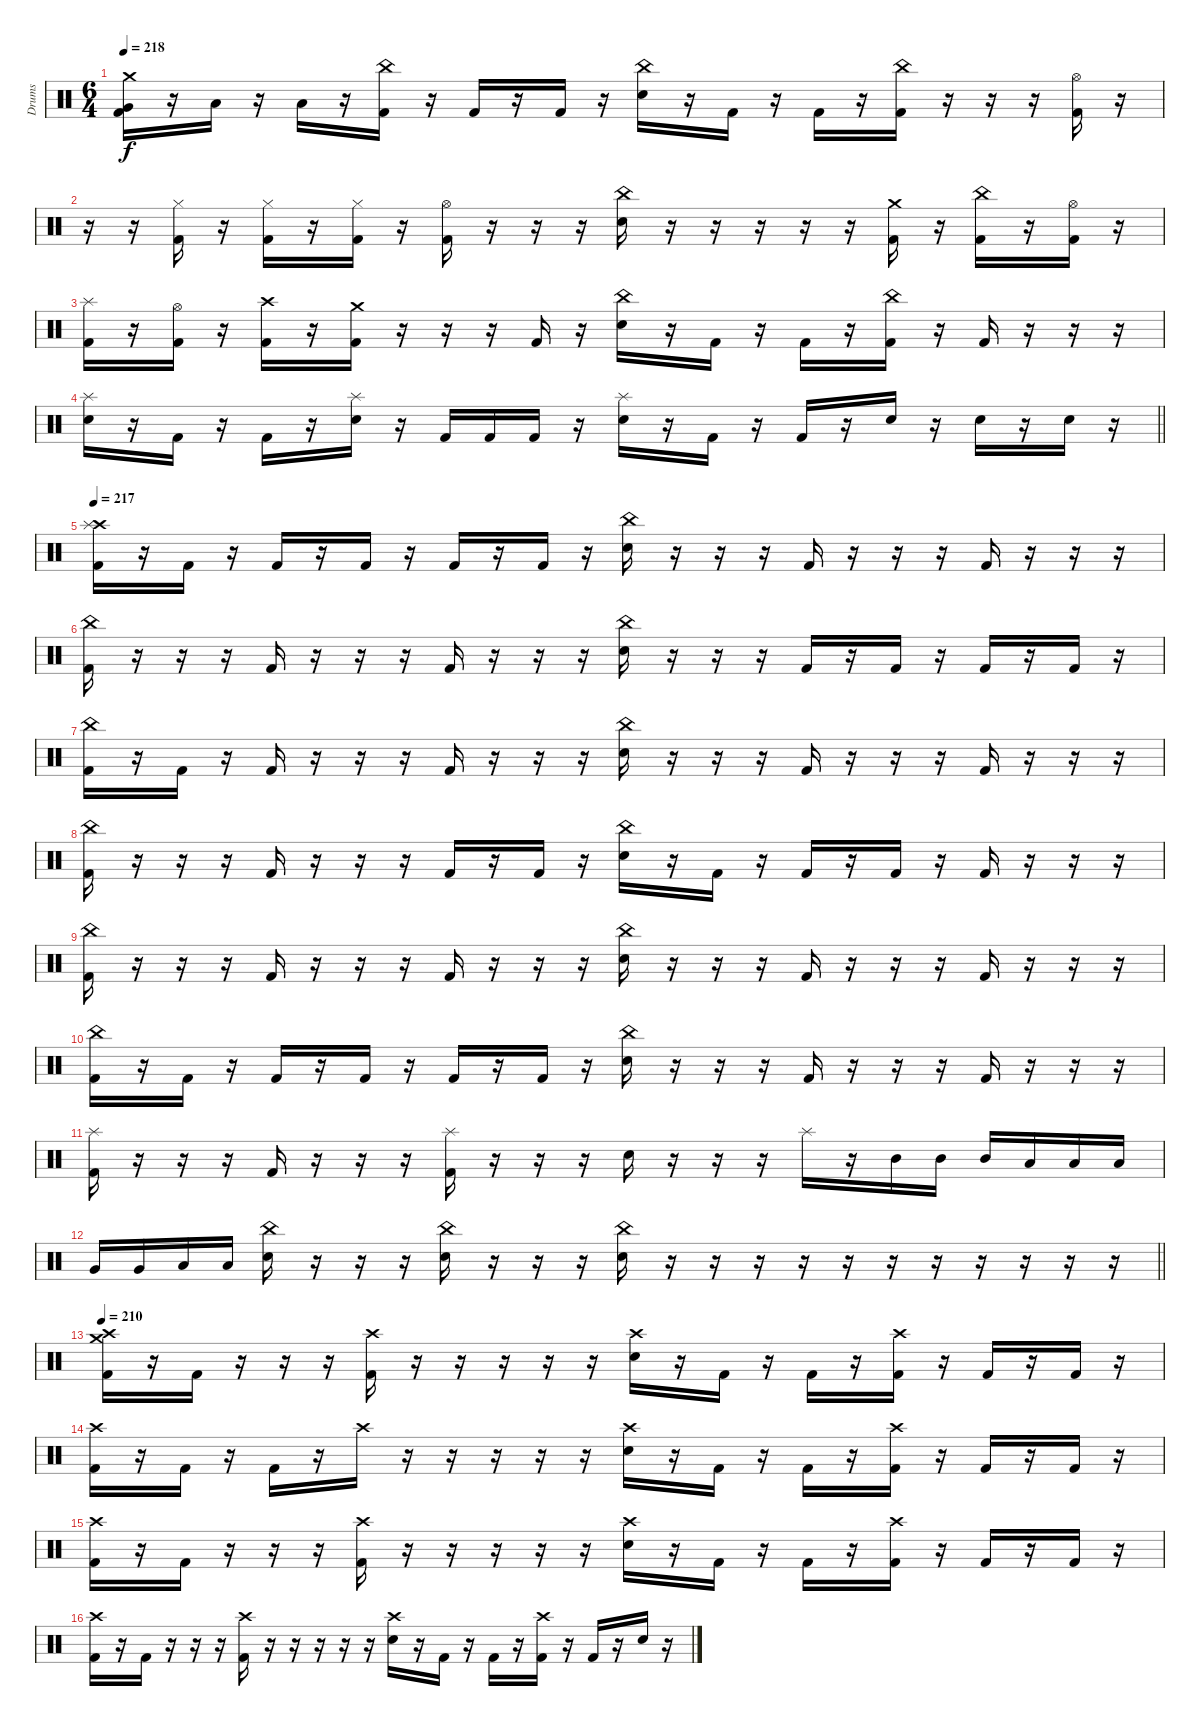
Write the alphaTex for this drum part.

\track ("Drums" "Drums") {instrument percussion}
\staff {score}
\articulation defaults
\ts (6 4)
\tempo 218
\clef neutral
\ks c
("Crash medium (hit)" "Very Low Tom (hit)" "Kick (hit) 2").16{dy f} r.16 "Low Tom (hit)".16 r.16 "Low Floor Tom (hit)".16 r.16 ("China (hit)" "Kick (hit) 2").16 r.16 "Kick (hit) 2".16 r.16 "Kick (hit) 2".16 r.16 ("China (hit)" "Electric Snare (hit)").16 r.16 "Kick (hit) 2".16 r.16 "Kick (hit) 2".16 r.16 ("China (hit)" "Kick (hit) 2").16 r.16 r.16 r.16 ("Hi-Hat (open)" "Kick (hit) 2").16 r.16 |
r.16 r.16 ("Hi-Hat (closed)" "Kick (hit) 2").16 r.16 ("Hi-Hat (closed)" "Kick (hit) 2").16 r.16 ("Hi-Hat (closed)" "Kick (hit) 2").16 r.16 ("Hi-Hat (open)" "Kick (hit) 2").16 r.16 r.16 r.16 ("China (hit)" "Electric Snare (hit)").16 r.16 r.16 r.16 r.16 r.16 ("Crash medium (hit)" "Kick (hit) 2").16 r.16 ("China (hit)" "Kick (hit) 2").16 r.16 ("Hi-Hat (open)" "Kick (hit) 2").16 r.16 |
("Splash (hit)" "Kick (hit) 2").16 r.16 ("Hi-Hat (open)" "Kick (hit) 2").16 r.16 ("Crash high (hit)" "Kick (hit) 2").16 r.16 ("Crash medium (hit)" "Kick (hit) 2").16 r.16 r.16 r.16 "Kick (hit) 2".16 r.16 ("China (hit)" "Electric Snare (hit)").16 r.16 "Kick (hit) 2".16 r.16 "Kick (hit) 2".16 r.16 ("China (hit)" "Kick (hit) 2").16 r.16 "Kick (hit) 2".16 r.16 r.16 r.16 |
\barLineRight lightlight
("Splash (hit)" "Electric Snare (hit)").16 r.16 "Kick (hit) 2".16 r.16 "Kick (hit) 2".16 r.16 ("Splash (hit)" "Electric Snare (hit)").16 r.16 "Kick (hit) 2".16 "Kick (hit) 2".16 "Kick (hit) 2".16 r.16 ("Splash (hit)" "Electric Snare (hit)").16 r.16 "Kick (hit) 2".16 r.16 "Kick (hit) 2".16 r.16 "Electric Snare (hit)".16 r.16 "Electric Snare (hit)".16 r.16 "Electric Snare (hit)".16 r.16 |
\section ("" "")
\tempo 217
("Crash high (hit)" "Splash (hit)" "Kick (hit) 2").16 r.16 "Kick (hit) 2".16 r.16 "Kick (hit) 2".16 r.16 "Kick (hit) 2".16 r.16 "Kick (hit) 2".16 r.16 "Kick (hit) 2".16 r.16 ("China (hit)" "Electric Snare (hit)").16 r.16 r.16 r.16 "Kick (hit) 2".16 r.16 r.16 r.16 "Kick (hit) 2".16 r.16 r.16 r.16 |
("China (hit)" "Kick (hit) 2").16 r.16 r.16 r.16 "Kick (hit) 2".16 r.16 r.16 r.16 "Kick (hit) 2".16 r.16 r.16 r.16 ("China (hit)" "Electric Snare (hit)").16 r.16 r.16 r.16 "Kick (hit) 2".16 r.16 "Kick (hit) 2".16 r.16 "Kick (hit) 2".16 r.16 "Kick (hit) 2".16 r.16 |
("China (hit)" "Kick (hit) 2").16 r.16 "Kick (hit) 2".16 r.16 "Kick (hit) 2".16 r.16 r.16 r.16 "Kick (hit) 2".16 r.16 r.16 r.16 ("China (hit)" "Electric Snare (hit)").16 r.16 r.16 r.16 "Kick (hit) 2".16 r.16 r.16 r.16 "Kick (hit) 2".16 r.16 r.16 r.16 |
("China (hit)" "Kick (hit) 2").16 r.16 r.16 r.16 "Kick (hit) 2".16 r.16 r.16 r.16 "Kick (hit) 2".16 r.16 "Kick (hit) 2".16 r.16 ("China (hit)" "Electric Snare (hit)").16 r.16 "Kick (hit) 2".16 r.16 "Kick (hit) 2".16 r.16 "Kick (hit) 2".16 r.16 "Kick (hit) 2".16 r.16 r.16 r.16 |
("China (hit)" "Kick (hit) 2").16 r.16 r.16 r.16 "Kick (hit) 2".16 r.16 r.16 r.16 "Kick (hit) 2".16 r.16 r.16 r.16 ("China (hit)" "Electric Snare (hit)").16 r.16 r.16 r.16 "Kick (hit) 2".16 r.16 r.16 r.16 "Kick (hit) 2".16 r.16 r.16 r.16 |
("China (hit)" "Kick (hit) 2").16 r.16 "Kick (hit) 2".16 r.16 "Kick (hit) 2".16 r.16 "Kick (hit) 2".16 r.16 "Kick (hit) 2".16 r.16 "Kick (hit) 2".16 r.16 ("China (hit)" "Electric Snare (hit)").16 r.16 r.16 r.16 "Kick (hit) 2".16 r.16 r.16 r.16 "Kick (hit) 2".16 r.16 r.16 r.16 |
("Splash (hit)" "Kick (hit) 2").16 r.16 r.16 r.16 "Kick (hit) 2".16 r.16 r.16 r.16 ("Splash (hit)" "Kick (hit) 2").16 r.16 r.16 r.16 "Electric Snare (hit)".16 r.16 r.16 r.16 "Splash (hit)".16 r.16 "Mid Tom (hit)".16 "Mid Tom (hit)".16 "Mid Tom (hit)".16 "Low Tom (hit)".16 "Low Tom (hit)".16 "Low Tom (hit)".16 |
\barLineRight lightlight "Very Low Tom (hit)".16 "Very Low Tom (hit)".16 "Low Floor Tom (hit)".16 "Low Floor Tom (hit)".16
("China (hit)" "Electric Snare (hit)").16 r.16 r.16 r.16 ("China (hit)" "Electric Snare (hit)").16 r.16 r.16 r.16 ("China (hit)" "Electric Snare (hit)").16 r.16 r.16{volume 0} r.16 r.16 r.16 r.16 r.16 r.16 r.16 r.16 r.16 |
\section ("" "")
\tempo 210
("Crash medium (hit)" "Crash high (hit)" "Kick (hit) 2").16{volume 13} r.16 "Kick (hit) 2".16 r.16 r.16 r.16 ("Crash high (hit)" "Kick (hit) 2").16 r.16 r.16 r.16 r.16 r.16 ("Crash high (hit)" "Electric Snare (hit)").16 r.16 "Kick (hit) 2".16 r.16 "Kick (hit) 2".16 r.16 ("Crash high (hit)" "Kick (hit) 2").16 r.16 "Kick (hit) 2".16 r.16 "Kick (hit) 2".16 r.16 |
("Crash high (hit)" "Kick (hit) 2").16 r.16 "Kick (hit) 2".16 r.16 "Kick (hit) 2".16 r.16 "Crash high (hit)".16 r.16 r.16 r.16 r.16 r.16 ("Crash high (hit)" "Electric Snare (hit)").16 r.16 "Kick (hit) 2".16 r.16 "Kick (hit) 2".16 r.16 ("Crash high (hit)" "Kick (hit) 2").16 r.16 "Kick (hit) 2".16 r.16 "Kick (hit) 2".16 r.16 |
("Crash high (hit)" "Kick (hit) 2").16 r.16 "Kick (hit) 2".16 r.16 r.16 r.16 ("Crash high (hit)" "Kick (hit) 2").16 r.16 r.16 r.16 r.16 r.16 ("Crash high (hit)" "Electric Snare (hit)").16 r.16 "Kick (hit) 2".16 r.16 "Kick (hit) 2".16 r.16 ("Crash high (hit)" "Kick (hit) 2").16 r.16 "Kick (hit) 2".16 r.16 "Kick (hit) 2".16 r.16 |
("Crash high (hit)" "Kick (hit) 2").16 r.16 "Kick (hit) 2".16 r.16 r.16 r.16 ("Crash high (hit)" "Kick (hit) 2").16 r.16 r.16 r.16 r.16 r.16 ("Crash high (hit)" "Electric Snare (hit)").16 r.16 "Kick (hit) 2".16 r.16 "Kick (hit) 2".16 r.16 ("Crash high (hit)" "Kick (hit) 2").16 r.16 "Kick (hit) 2".16 r.16 "Electric Snare (hit)".16 r.16
